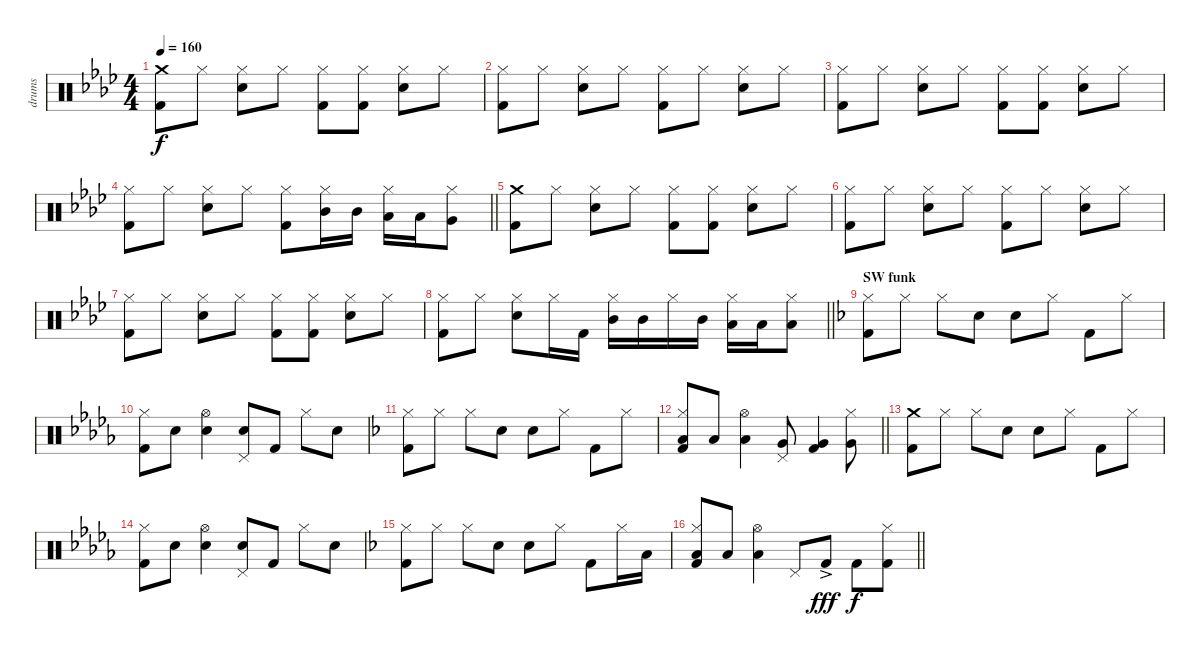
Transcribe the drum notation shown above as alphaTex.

\track ("drums" "drums") {instrument percussion}
\staff {score}
\articulation defaults
\ts (4 4)
\tempo 160
\clef neutral
\ks ab
("Crash medium (hit)" "Kick (hit) 2").8{dy f} "Hi-Hat (closed)".8 ("Hi-Hat (closed)" "Electric Snare (hit)").8 "Hi-Hat (closed)".8 ("Hi-Hat (closed)" "Kick (hit) 2").8 ("Hi-Hat (closed)" "Kick (hit) 2").8 ("Hi-Hat (closed)" "Electric Snare (hit)").8 "Hi-Hat (closed)".8 |
("Hi-Hat (closed)" "Kick (hit) 2").8 "Hi-Hat (closed)".8 ("Hi-Hat (closed)" "Electric Snare (hit)").8 "Hi-Hat (closed)".8 ("Hi-Hat (closed)" "Kick (hit) 2").8 "Hi-Hat (closed)".8 ("Hi-Hat (closed)" "Electric Snare (hit)").8 "Hi-Hat (closed)".8 |
("Hi-Hat (closed)" "Kick (hit) 2").8 "Hi-Hat (closed)".8 ("Hi-Hat (closed)" "Electric Snare (hit)").8 "Hi-Hat (closed)".8 ("Hi-Hat (closed)" "Kick (hit) 2").8 ("Hi-Hat (closed)" "Kick (hit) 2").8 ("Hi-Hat (closed)" "Electric Snare (hit)").8 "Hi-Hat (closed)".8 |
\barLineRight lightlight
("Hi-Hat (closed)" "Kick (hit) 2").8 "Hi-Hat (closed)".8 ("Hi-Hat (closed)" "Electric Snare (hit)").8 "Hi-Hat (closed)".8 ("Hi-Hat (closed)" "Kick (hit) 2").8 ("Hi-Hat (closed)" "Mid Tom (hit)").16 "Mid Tom (hit)".16 ("Hi-Hat (closed)" "Low Tom (hit)").16 "Low Tom (hit)".16 ("Hi-Hat (closed)" "Very Low Tom (hit)").8 |
("Crash medium (hit)" "Kick (hit) 2").8 "Hi-Hat (closed)".8 ("Hi-Hat (closed)" "Electric Snare (hit)").8 "Hi-Hat (closed)".8 ("Hi-Hat (closed)" "Kick (hit) 2").8 ("Hi-Hat (closed)" "Kick (hit) 2").8 ("Hi-Hat (closed)" "Electric Snare (hit)").8 "Hi-Hat (closed)".8 |
("Hi-Hat (closed)" "Kick (hit) 2").8 "Hi-Hat (closed)".8 ("Hi-Hat (closed)" "Electric Snare (hit)").8 "Hi-Hat (closed)".8 ("Hi-Hat (closed)" "Kick (hit) 2").8 "Hi-Hat (closed)".8 ("Hi-Hat (closed)" "Electric Snare (hit)").8 "Hi-Hat (closed)".8 |
("Hi-Hat (closed)" "Kick (hit) 2").8 "Hi-Hat (closed)".8 ("Hi-Hat (closed)" "Electric Snare (hit)").8 "Hi-Hat (closed)".8 ("Hi-Hat (closed)" "Kick (hit) 2").8 ("Hi-Hat (closed)" "Kick (hit) 2").8 ("Hi-Hat (closed)" "Electric Snare (hit)").8 "Hi-Hat (closed)".8 |
\barLineRight lightlight
("Hi-Hat (closed)" "Kick (hit) 2").8 "Hi-Hat (closed)".8 ("Hi-Hat (closed)" "Electric Snare (hit)").8 "Hi-Hat (closed)".16 "Kick (hit) 2".16 ("Hi-Hat (closed)" "Mid Tom (hit)").16 "Mid Tom (hit)".16 "Hi-Hat (closed)".16 "Mid Tom (hit)".16 ("Hi-Hat (closed)" "Low Tom (hit)").16 "Low Tom (hit)".16 ("Hi-Hat (closed)" "Low Tom (hit)").8 |
\section ("" "SW funk")
\ks f
("Hi-Hat (closed)" "Kick (hit) 2").8 "Hi-Hat (closed)".8 "Hi-Hat (closed)".8 "Electric Snare (hit)".8 "Electric Snare (hit)".8 "Hi-Hat (closed)".8 "Kick (hit) 2".8 "Hi-Hat (closed)".8 |
\ks bbminor
("Hi-Hat (closed)" "Kick (hit) 2").8 "Electric Snare (hit)".8 ("Hi-Hat (open)" "Electric Snare (hit)").4 ("Pedal Hi-Hat (hit)" "Electric Snare (hit)").8 "Kick (hit) 2".8 "Hi-Hat (closed)".8 "Electric Snare (hit)".8 |
\ks f
("Hi-Hat (closed)" "Kick (hit) 2").8 "Hi-Hat (closed)".8 "Hi-Hat (closed)".8 "Electric Snare (hit)".8 "Electric Snare (hit)".8 "Hi-Hat (closed)".8 "Kick (hit) 2".8 "Hi-Hat (closed)".8 |
\barLineRight lightlight
("Hi-Hat (closed)" "Low Tom (hit)" "Kick (hit) 2").8 "Low Tom (hit)".8 ("Hi-Hat (open)" "Low Tom (hit)").4 ("Pedal Hi-Hat (hit)" "Very Low Tom (hit)").8 ("Very Low Tom (hit)" "Kick (hit) 2").4 ("Hi-Hat (closed)" "Very Low Tom (hit)").8 |
("Crash medium (hit)" "Kick (hit) 2").8 "Hi-Hat (closed)".8 "Hi-Hat (closed)".8 "Electric Snare (hit)".8 "Electric Snare (hit)".8 "Hi-Hat (closed)".8 "Kick (hit) 2".8 "Hi-Hat (closed)".8 |
\ks bbminor
("Hi-Hat (closed)" "Kick (hit) 2").8 "Electric Snare (hit)".8 ("Hi-Hat (open)" "Electric Snare (hit)").4 ("Pedal Hi-Hat (hit)" "Electric Snare (hit)").8 "Kick (hit) 2".8 "Hi-Hat (closed)".8 "Electric Snare (hit)".8 |
\ks f
("Hi-Hat (closed)" "Kick (hit) 2").8 "Hi-Hat (closed)".8 "Hi-Hat (closed)".8 "Electric Snare (hit)".8 "Electric Snare (hit)".8 "Hi-Hat (closed)".8 "Kick (hit) 2".8 "Hi-Hat (closed)".16 "Low Tom (hit)".16 |
\barLineRight lightlight
("Hi-Hat (closed)" "Low Tom (hit)" "Kick (hit) 2").8 "Low Tom (hit)".8 ("Hi-Hat (open)" "Low Tom (hit)").4 "Pedal Hi-Hat (hit)".8 "Kick (hit) 2"{ac}.8{dy fff} "Kick (hit) 2".8{dy f} ("Hi-Hat (closed)" "Kick (hit) 2").8
